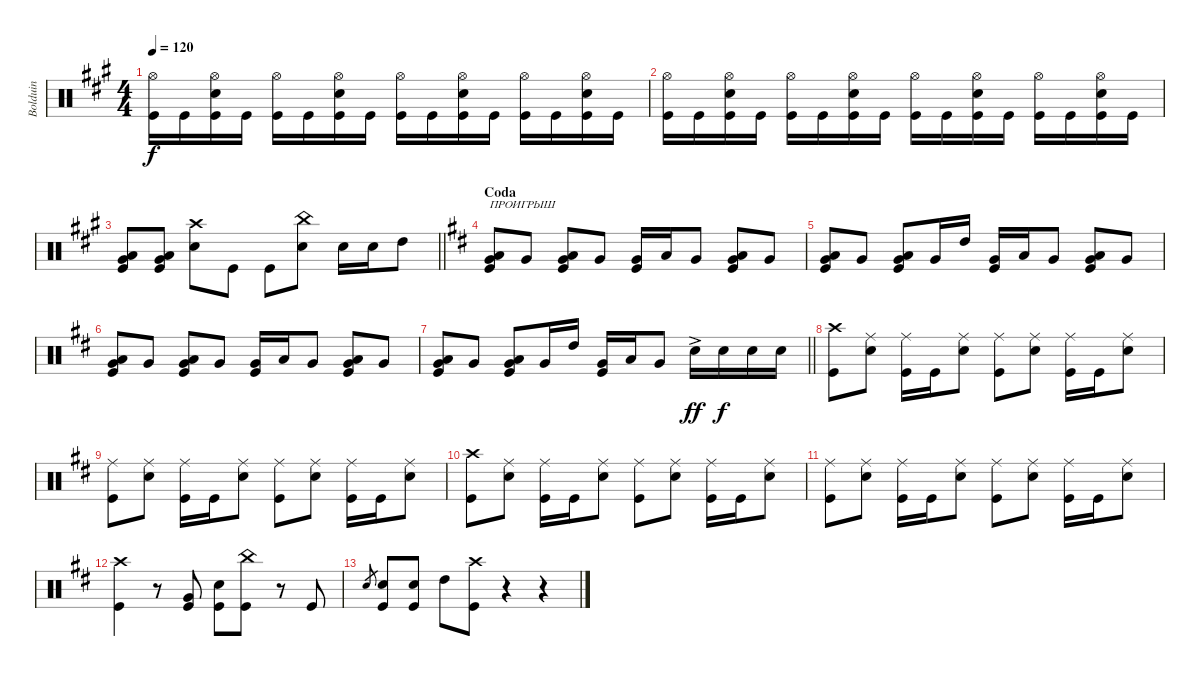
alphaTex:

\track ("Bolduin" "Bolduin") {instrument percussion}
\staff {score}
\articulation defaults
\ts (4 4)
\tempo 120
\clef neutral
\ks f#minor
("Kick (hit)" "Hi-Hat (open)").16{dy f} "Kick (hit)".16 ("Snare (hit) 2" "Kick (hit)" "Hi-Hat (open)").16 "Kick (hit)".16 ("Kick (hit)" "Hi-Hat (open)").16 "Kick (hit)".16 ("Kick (hit)" "Snare (hit) 2" "Hi-Hat (open)").16 "Kick (hit)".16 ("Kick (hit)" "Hi-Hat (open)").16 "Kick (hit)".16 ("Kick (hit)" "Snare (hit) 2" "Hi-Hat (open)").16 "Kick (hit)".16 ("Kick (hit)" "Hi-Hat (open)").16 "Kick (hit)".16 ("Kick (hit)" "Snare (hit) 2" "Hi-Hat (open)").16 "Kick (hit)".16 |
("Kick (hit)" "Hi-Hat (open)").16 "Kick (hit)".16 ("Snare (hit) 2" "Kick (hit)" "Hi-Hat (open)").16 "Kick (hit)".16 ("Kick (hit)" "Hi-Hat (open)").16 "Kick (hit)".16 ("Kick (hit)" "Snare (hit) 2" "Hi-Hat (open)").16 "Kick (hit)".16 ("Kick (hit)" "Hi-Hat (open)").16 "Kick (hit)".16 ("Kick (hit)" "Snare (hit) 2" "Hi-Hat (open)").16 "Kick (hit)".16 ("Kick (hit)" "Hi-Hat (open)").16 "Kick (hit)".16 ("Kick (hit)" "Snare (hit) 2" "Hi-Hat (open)").16 "Kick (hit)".16 |
\barLineRight lightlight
("Kick (hit)" "Low Tom (hit)" "Very Low Tom (hit)").8 ("Kick (hit)" "Low Tom (hit)" "Very Low Tom (hit)").8 ("Crash high (hit)" "Snare (hit) 2").8 "Kick (hit)".8 "Kick (hit)".8 ("Snare (hit) 2" "China (hit)").8 "Snare (hit) 2".16 "Snare (hit) 2".16 "High Tom (hit)".8 |
\section ("" "Coda")
\ks bminor
("Kick (hit)" "Low Tom (hit)" "Very Low Tom (hit)").8{txt "ПРОИГРЫШ"} "Very Low Tom (hit)".8 ("Very Low Tom (hit)" "Kick (hit)" "Low Tom (hit)").8 "Very Low Tom (hit)".8 ("Kick (hit)" "Very Low Tom (hit)").16 "Low Tom (hit)".16 "Very Low Tom (hit)".8 ("Kick (hit)" "Very Low Tom (hit)" "Low Tom (hit)").8 "Very Low Tom (hit)".8 |
("Kick (hit)" "Low Tom (hit)" "Very Low Tom (hit)").8 "Very Low Tom (hit)".8 ("Very Low Tom (hit)" "Kick (hit)" "Low Tom (hit)").8 "Very Low Tom (hit)".16 "High Tom (hit)".16 ("Kick (hit)" "Very Low Tom (hit)").16 "Low Tom (hit)".16 "Very Low Tom (hit)".8 ("Kick (hit)" "Very Low Tom (hit)" "Low Tom (hit)").8 "Very Low Tom (hit)".8 |
("Kick (hit)" "Low Tom (hit)" "Very Low Tom (hit)").8 "Very Low Tom (hit)".8 ("Very Low Tom (hit)" "Kick (hit)" "Low Tom (hit)").8 "Very Low Tom (hit)".8 ("Kick (hit)" "Very Low Tom (hit)").16 "Low Tom (hit)".16 "Very Low Tom (hit)".8 ("Kick (hit)" "Very Low Tom (hit)" "Low Tom (hit)").8 "Very Low Tom (hit)".8 |
\barLineRight lightlight
("Kick (hit)" "Low Tom (hit)" "Very Low Tom (hit)").8 "Very Low Tom (hit)".8 ("Very Low Tom (hit)" "Kick (hit)" "Low Tom (hit)").8 "Very Low Tom (hit)".16 "High Tom (hit)".16 ("Kick (hit)" "Very Low Tom (hit)").16 "Low Tom (hit)".16 "Very Low Tom (hit)".8 "Snare (hit) 2"{ac}.16{dy ff} "Snare (hit) 2".16{dy f} "Snare (hit) 2".16 "Snare (hit) 2".16 |
("Kick (hit)" "Crash high (hit)").8 ("Snare (hit) 2" "Ride (middle)").8 ("Kick (hit)" "Ride (middle)").16 "Kick (hit)".16 ("Snare (hit) 2" "Ride (middle)").8 ("Kick (hit)" "Ride (middle)").8 ("Snare (hit) 2" "Ride (middle)").8 ("Kick (hit)" "Ride (middle)").16 "Kick (hit)".16 ("Snare (hit) 2" "Ride (middle)").8 |
("Kick (hit)" "Ride (middle)").8 ("Snare (hit) 2" "Ride (middle)").8 ("Kick (hit)" "Ride (middle)").16 "Kick (hit)".16 ("Snare (hit) 2" "Ride (middle)").8 ("Kick (hit)" "Ride (middle)").8 ("Snare (hit) 2" "Ride (middle)").8 ("Kick (hit)" "Ride (middle)").16 "Kick (hit)".16 ("Snare (hit) 2" "Ride (middle)").8 |
("Kick (hit)" "Crash high (hit)").8 ("Snare (hit) 2" "Ride (middle)").8 ("Kick (hit)" "Ride (middle)").16 "Kick (hit)".16 ("Snare (hit) 2" "Ride (middle)").8 ("Kick (hit)" "Ride (middle)").8 ("Snare (hit) 2" "Ride (middle)").8 ("Kick (hit)" "Ride (middle)").16 "Kick (hit)".16 ("Snare (hit) 2" "Ride (middle)").8 |
("Kick (hit)" "Ride (middle)").8 ("Snare (hit) 2" "Ride (middle)").8 ("Kick (hit)" "Ride (middle)").16 "Kick (hit)".16 ("Snare (hit) 2" "Ride (middle)").8 ("Kick (hit)" "Ride (middle)").8 ("Snare (hit) 2" "Ride (middle)").8 ("Kick (hit)" "Ride (middle)").16 "Kick (hit)".16 ("Snare (hit) 2" "Ride (middle)").8 |
("Kick (hit)" "Crash high (hit)").4 r.8 ("Kick (hit)" "Very Low Tom (hit)").8 ("Kick (hit)" "Snare (hit) 2").8 ("Kick (hit)" "China (hit)").8 r.8 "Kick (hit)".8 |
"Snare (hit) 2".8{gr} ("Kick (hit)" "Snare (hit) 2").8 ("Snare (hit) 2" "Kick (hit)").8 "High Tom (hit)".8 ("Kick (hit)" "Crash high (hit)").8 r.4 r.4
